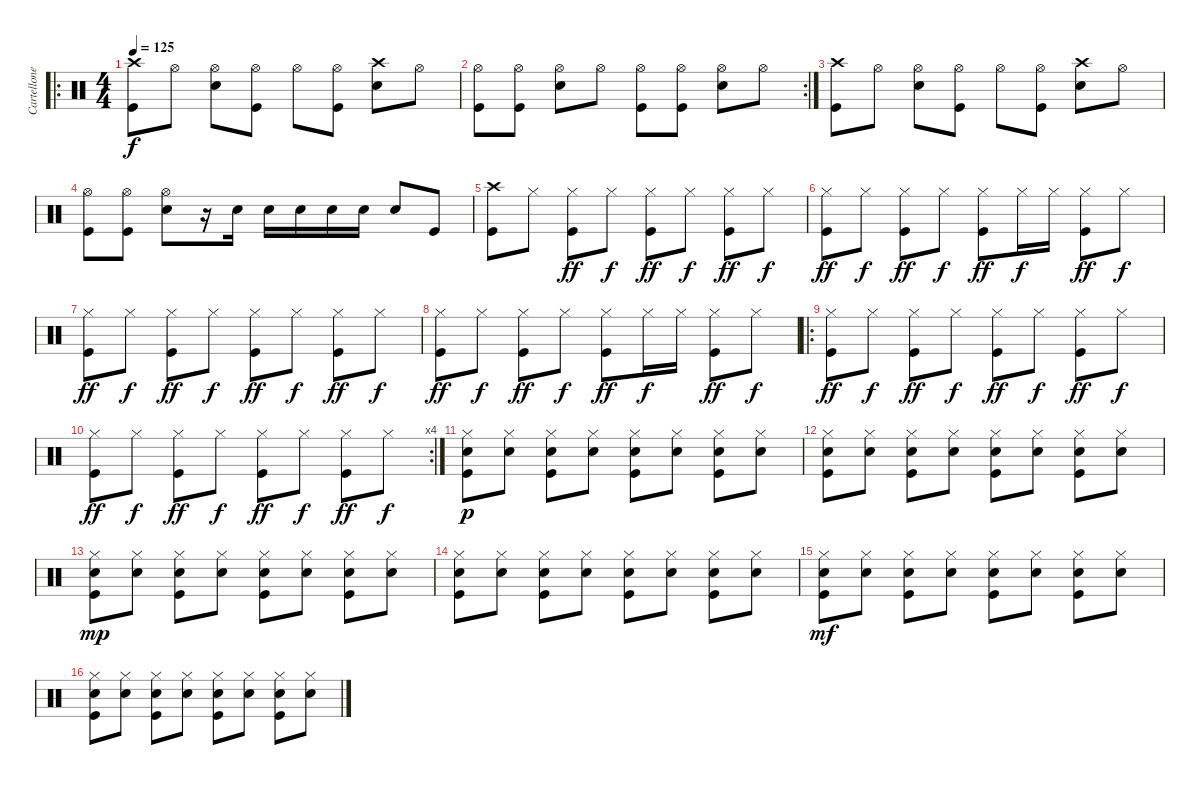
\track ("Cartellone" "Cartellone") {instrument percussion}
\staff {score}
\articulation defaults
\ro
\ts (4 4)
\tempo 125
\clef neutral
\ks c
("Crash high (hit)" "Kick (hit)").8{dy f} "Hi-Hat (open)".8 ("Hi-Hat (open)" "Snare (hit) 2").8 ("Hi-Hat (open)" "Kick (hit)").8 "Hi-Hat (open)".8 ("Hi-Hat (open)" "Kick (hit)").8 ("Crash high (hit)" "Snare (hit) 2").8 "Hi-Hat (open)".8 |
\rc 2
("Hi-Hat (open)" "Kick (hit)").8 ("Hi-Hat (open)" "Kick (hit)").8 ("Hi-Hat (open)" "Snare (hit) 2").8 "Hi-Hat (open)".8 ("Hi-Hat (open)" "Kick (hit)").8 ("Hi-Hat (open)" "Kick (hit)").8 ("Hi-Hat (open)" "Snare (hit) 2").8 "Hi-Hat (open)".8 |
("Crash high (hit)" "Kick (hit)").8 "Hi-Hat (open)".8 ("Hi-Hat (open)" "Snare (hit) 2").8 ("Hi-Hat (open)" "Kick (hit)").8 "Hi-Hat (open)".8 ("Hi-Hat (open)" "Kick (hit)").8 ("Crash high (hit)" "Snare (hit) 2").8 "Hi-Hat (open)".8 |
("Hi-Hat (open)" "Kick (hit)").8 ("Hi-Hat (open)" "Kick (hit)").8 ("Hi-Hat (open)" "Snare (hit) 2").8 r.16 "Snare (hit) 2".16 "Snare (hit) 2".16 "Snare (hit) 2".16 "Snare (hit) 2".16 "Snare (hit) 2".16 "Snare (hit) 2".8 "Kick (hit)".8 |
("Crash high (hit)" "Kick (hit)").8 "Hi-Hat (closed)".8 ("Hi-Hat (closed)" "Kick (hit)").8{dy ff} "Hi-Hat (closed)".8{dy f} ("Hi-Hat (closed)" "Kick (hit)").8{dy ff} "Hi-Hat (closed)".8{dy f} ("Hi-Hat (closed)" "Kick (hit)").8{dy ff} "Hi-Hat (closed)".8{dy f} |
("Hi-Hat (closed)" "Kick (hit)").8{dy ff} "Hi-Hat (closed)".8{dy f} ("Hi-Hat (closed)" "Kick (hit)").8{dy ff} "Hi-Hat (closed)".8{dy f} ("Hi-Hat (closed)" "Kick (hit)").8{dy ff} "Hi-Hat (closed)".16{dy f} "Hi-Hat (closed)".16 ("Hi-Hat (closed)" "Kick (hit)").8{dy ff} "Hi-Hat (closed)".8{dy f} |
("Hi-Hat (closed)" "Kick (hit)").8{dy ff} "Hi-Hat (closed)".8{dy f} ("Hi-Hat (closed)" "Kick (hit)").8{dy ff} "Hi-Hat (closed)".8{dy f} ("Hi-Hat (closed)" "Kick (hit)").8{dy ff} "Hi-Hat (closed)".8{dy f} ("Hi-Hat (closed)" "Kick (hit)").8{dy ff} "Hi-Hat (closed)".8{dy f} |
("Hi-Hat (closed)" "Kick (hit)").8{dy ff} "Hi-Hat (closed)".8{dy f} ("Hi-Hat (closed)" "Kick (hit)").8{dy ff} "Hi-Hat (closed)".8{dy f} ("Hi-Hat (closed)" "Kick (hit)").8{dy ff} "Hi-Hat (closed)".16{dy f} "Hi-Hat (closed)".16 ("Hi-Hat (closed)" "Kick (hit)").8{dy ff} "Hi-Hat (closed)".8{dy f} |
\ro
("Hi-Hat (closed)" "Kick (hit)").8{dy ff} "Hi-Hat (closed)".8{dy f} ("Hi-Hat (closed)" "Kick (hit)").8{dy ff} "Hi-Hat (closed)".8{dy f} ("Hi-Hat (closed)" "Kick (hit)").8{dy ff} "Hi-Hat (closed)".8{dy f} ("Hi-Hat (closed)" "Kick (hit)").8{dy ff} "Hi-Hat (closed)".8{dy f} |
\rc 4
("Hi-Hat (closed)" "Kick (hit)").8{dy ff} "Hi-Hat (closed)".8{dy f} ("Hi-Hat (closed)" "Kick (hit)").8{dy ff} "Hi-Hat (closed)".8{dy f} ("Hi-Hat (closed)" "Kick (hit)").8{dy ff} "Hi-Hat (closed)".8{dy f} ("Hi-Hat (closed)" "Kick (hit)").8{dy ff} "Hi-Hat (closed)".8{dy f} |
("Hi-Hat (closed)" "Snare (hit) 2" "Kick (hit)").8{dy p} ("Hi-Hat (closed)" "Snare (hit) 2").8 ("Hi-Hat (closed)" "Snare (hit) 2" "Kick (hit)").8 ("Hi-Hat (closed)" "Snare (hit) 2").8 ("Hi-Hat (closed)" "Snare (hit) 2" "Kick (hit)").8 ("Hi-Hat (closed)" "Snare (hit) 2").8 ("Hi-Hat (closed)" "Snare (hit) 2" "Kick (hit)").8 ("Hi-Hat (closed)" "Snare (hit) 2").8 |
("Hi-Hat (closed)" "Snare (hit) 2" "Kick (hit)").8 ("Hi-Hat (closed)" "Snare (hit) 2").8 ("Hi-Hat (closed)" "Snare (hit) 2" "Kick (hit)").8 ("Hi-Hat (closed)" "Snare (hit) 2").8 ("Hi-Hat (closed)" "Snare (hit) 2" "Kick (hit)").8 ("Hi-Hat (closed)" "Snare (hit) 2").8 ("Hi-Hat (closed)" "Snare (hit) 2" "Kick (hit)").8 ("Hi-Hat (closed)" "Snare (hit) 2").8 |
("Hi-Hat (closed)" "Snare (hit) 2" "Kick (hit)").8{dy mp} ("Hi-Hat (closed)" "Snare (hit) 2").8 ("Hi-Hat (closed)" "Snare (hit) 2" "Kick (hit)").8 ("Hi-Hat (closed)" "Snare (hit) 2").8 ("Hi-Hat (closed)" "Snare (hit) 2" "Kick (hit)").8 ("Hi-Hat (closed)" "Snare (hit) 2").8 ("Hi-Hat (closed)" "Snare (hit) 2" "Kick (hit)").8 ("Hi-Hat (closed)" "Snare (hit) 2").8 |
("Hi-Hat (closed)" "Snare (hit) 2" "Kick (hit)").8 ("Hi-Hat (closed)" "Snare (hit) 2").8 ("Hi-Hat (closed)" "Snare (hit) 2" "Kick (hit)").8 ("Hi-Hat (closed)" "Snare (hit) 2").8 ("Hi-Hat (closed)" "Snare (hit) 2" "Kick (hit)").8 ("Hi-Hat (closed)" "Snare (hit) 2").8 ("Hi-Hat (closed)" "Snare (hit) 2" "Kick (hit)").8 ("Hi-Hat (closed)" "Snare (hit) 2").8 |
("Hi-Hat (closed)" "Snare (hit) 2" "Kick (hit)").8{dy mf} ("Hi-Hat (closed)" "Snare (hit) 2").8 ("Hi-Hat (closed)" "Snare (hit) 2" "Kick (hit)").8 ("Hi-Hat (closed)" "Snare (hit) 2").8 ("Hi-Hat (closed)" "Snare (hit) 2" "Kick (hit)").8 ("Hi-Hat (closed)" "Snare (hit) 2").8 ("Hi-Hat (closed)" "Snare (hit) 2" "Kick (hit)").8 ("Hi-Hat (closed)" "Snare (hit) 2").8 |
("Hi-Hat (closed)" "Snare (hit) 2" "Kick (hit)").8 ("Hi-Hat (closed)" "Snare (hit) 2").8 ("Hi-Hat (closed)" "Snare (hit) 2" "Kick (hit)").8 ("Hi-Hat (closed)" "Snare (hit) 2").8 ("Hi-Hat (closed)" "Snare (hit) 2" "Kick (hit)").8 ("Hi-Hat (closed)" "Snare (hit) 2").8 ("Hi-Hat (closed)" "Snare (hit) 2" "Kick (hit)").8 ("Hi-Hat (closed)" "Snare (hit) 2").8
